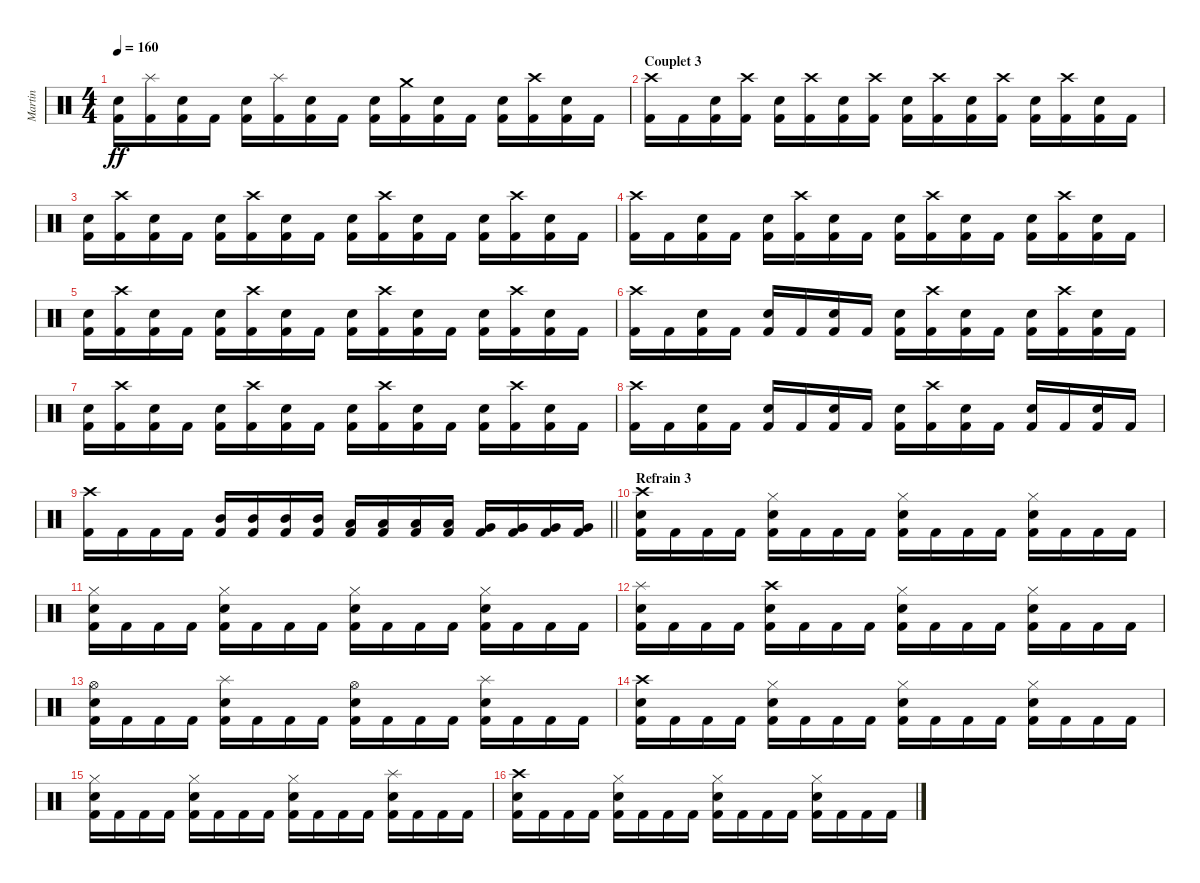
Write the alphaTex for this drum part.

\track ("Martin" "Martin") {instrument percussion}
\staff {score}
\articulation defaults
\ts (4 4)
\tempo 160
\clef neutral
\ks c
("Electric Snare (hit)" "Kick (hit) 2").16{dy ff} ("Splash (hit)" "Kick (hit) 2").16 ("Electric Snare (hit)" "Kick (hit) 2").16 "Kick (hit) 2".16 ("Electric Snare (hit)" "Kick (hit) 2").16 ("Splash (hit)" "Kick (hit) 2").16 ("Electric Snare (hit)" "Kick (hit) 2").16 "Kick (hit) 2".16 ("Electric Snare (hit)" "Kick (hit) 2").16 ("Crash medium (hit)" "Kick (hit) 2").16 ("Electric Snare (hit)" "Kick (hit) 2").16 "Kick (hit) 2".16 ("Electric Snare (hit)" "Kick (hit) 2").16 ("Crash high (hit)" "Kick (hit) 2").16 ("Electric Snare (hit)" "Kick (hit) 2").16 "Kick (hit) 2".16 |
\section ("" "Couplet 3")
("Crash high (hit)" "Kick (hit) 2").16 "Kick (hit) 2".16 ("Electric Snare (hit)" "Kick (hit) 2").16 ("Crash high (hit)" "Kick (hit) 2").16 ("Electric Snare (hit)" "Kick (hit) 2").16 ("Crash high (hit)" "Kick (hit) 2").16 ("Electric Snare (hit)" "Kick (hit) 2").16 ("Crash high (hit)" "Kick (hit) 2").16 ("Electric Snare (hit)" "Kick (hit) 2").16 ("Crash high (hit)" "Kick (hit) 2").16 ("Electric Snare (hit)" "Kick (hit) 2").16 ("Crash high (hit)" "Kick (hit) 2").16 ("Electric Snare (hit)" "Kick (hit) 2").16 ("Crash high (hit)" "Kick (hit) 2").16 ("Electric Snare (hit)" "Kick (hit) 2").16 "Kick (hit) 2".16 |
("Electric Snare (hit)" "Kick (hit) 2").16 ("Crash high (hit)" "Kick (hit) 2").16 ("Electric Snare (hit)" "Kick (hit) 2").16 "Kick (hit) 2".16 ("Electric Snare (hit)" "Kick (hit) 2").16 ("Crash high (hit)" "Kick (hit) 2").16 ("Electric Snare (hit)" "Kick (hit) 2").16 "Kick (hit) 2".16 ("Electric Snare (hit)" "Kick (hit) 2").16 ("Crash high (hit)" "Kick (hit) 2").16 ("Electric Snare (hit)" "Kick (hit) 2").16 "Kick (hit) 2".16 ("Electric Snare (hit)" "Kick (hit) 2").16 ("Crash high (hit)" "Kick (hit) 2").16 ("Electric Snare (hit)" "Kick (hit) 2").16 "Kick (hit) 2".16 |
("Crash high (hit)" "Kick (hit) 2").16 "Kick (hit) 2".16 ("Electric Snare (hit)" "Kick (hit) 2").16 "Kick (hit) 2".16 ("Electric Snare (hit)" "Kick (hit) 2").16 ("Crash high (hit)" "Kick (hit) 2").16 ("Electric Snare (hit)" "Kick (hit) 2").16 "Kick (hit) 2".16 ("Electric Snare (hit)" "Kick (hit) 2").16 ("Crash high (hit)" "Kick (hit) 2").16 ("Electric Snare (hit)" "Kick (hit) 2").16 "Kick (hit) 2".16 ("Electric Snare (hit)" "Kick (hit) 2").16 ("Crash high (hit)" "Kick (hit) 2").16 ("Electric Snare (hit)" "Kick (hit) 2").16 "Kick (hit) 2".16 |
("Electric Snare (hit)" "Kick (hit) 2").16 ("Crash high (hit)" "Kick (hit) 2").16 ("Electric Snare (hit)" "Kick (hit) 2").16 "Kick (hit) 2".16 ("Electric Snare (hit)" "Kick (hit) 2").16 ("Crash high (hit)" "Kick (hit) 2").16 ("Electric Snare (hit)" "Kick (hit) 2").16 "Kick (hit) 2".16 ("Electric Snare (hit)" "Kick (hit) 2").16 ("Crash high (hit)" "Kick (hit) 2").16 ("Electric Snare (hit)" "Kick (hit) 2").16 "Kick (hit) 2".16 ("Electric Snare (hit)" "Kick (hit) 2").16 ("Crash high (hit)" "Kick (hit) 2").16 ("Electric Snare (hit)" "Kick (hit) 2").16 "Kick (hit) 2".16 |
("Crash high (hit)" "Kick (hit) 2").16 "Kick (hit) 2".16 ("Electric Snare (hit)" "Kick (hit) 2").16 "Kick (hit) 2".16 ("Electric Snare (hit)" "Kick (hit) 2").16 "Kick (hit) 2".16 ("Electric Snare (hit)" "Kick (hit) 2").16 "Kick (hit) 2".16 ("Electric Snare (hit)" "Kick (hit) 2").16 ("Crash high (hit)" "Kick (hit) 2").16 ("Electric Snare (hit)" "Kick (hit) 2").16 "Kick (hit) 2".16 ("Electric Snare (hit)" "Kick (hit) 2").16 ("Crash high (hit)" "Kick (hit) 2").16 ("Electric Snare (hit)" "Kick (hit) 2").16 "Kick (hit) 2".16 |
("Electric Snare (hit)" "Kick (hit) 2").16 ("Crash high (hit)" "Kick (hit) 2").16 ("Electric Snare (hit)" "Kick (hit) 2").16 "Kick (hit) 2".16 ("Electric Snare (hit)" "Kick (hit) 2").16 ("Crash high (hit)" "Kick (hit) 2").16 ("Electric Snare (hit)" "Kick (hit) 2").16 "Kick (hit) 2".16 ("Electric Snare (hit)" "Kick (hit) 2").16 ("Crash high (hit)" "Kick (hit) 2").16 ("Electric Snare (hit)" "Kick (hit) 2").16 "Kick (hit) 2".16 ("Electric Snare (hit)" "Kick (hit) 2").16 ("Crash high (hit)" "Kick (hit) 2").16 ("Electric Snare (hit)" "Kick (hit) 2").16 "Kick (hit) 2".16 |
("Crash high (hit)" "Kick (hit) 2").16 "Kick (hit) 2".16 ("Electric Snare (hit)" "Kick (hit) 2").16 "Kick (hit) 2".16 ("Electric Snare (hit)" "Kick (hit) 2").16 "Kick (hit) 2".16 ("Electric Snare (hit)" "Kick (hit) 2").16 "Kick (hit) 2".16 ("Electric Snare (hit)" "Kick (hit) 2").16 ("Crash high (hit)" "Kick (hit) 2").16 ("Electric Snare (hit)" "Kick (hit) 2").16 "Kick (hit) 2".16 ("Electric Snare (hit)" "Kick (hit) 2").16 "Kick (hit) 2".16 ("Electric Snare (hit)" "Kick (hit) 2").16 "Kick (hit) 2".16 |
\barLineRight lightlight
("Crash high (hit)" "Kick (hit) 2").16 "Kick (hit) 2".16 "Kick (hit) 2".16 "Kick (hit) 2".16 ("Mid Tom (hit)" "Kick (hit) 2").16 ("Mid Tom (hit)" "Kick (hit) 2").16 ("Mid Tom (hit)" "Kick (hit) 2").16 ("Mid Tom (hit)" "Kick (hit) 2").16 ("Low Tom (hit)" "Kick (hit) 2").16 ("Low Tom (hit)" "Kick (hit) 2").16 ("Low Tom (hit)" "Kick (hit) 2").16 ("Low Tom (hit)" "Kick (hit) 2").16 ("Very Low Tom (hit)" "Kick (hit) 2").16 ("Very Low Tom (hit)" "Kick (hit) 2").16 ("Very Low Tom (hit)" "Kick (hit) 2").16 ("Very Low Tom (hit)" "Kick (hit) 2").16 |
\section ("" "Refrain 3")
("Crash high (hit)" "Electric Snare (hit)" "Kick (hit) 2").16 "Kick (hit) 2".16 "Kick (hit) 2".16 "Kick (hit) 2".16 ("Hi-Hat (closed)" "Electric Snare (hit)" "Kick (hit) 2").16 "Kick (hit) 2".16 "Kick (hit) 2".16 "Kick (hit) 2".16 ("Hi-Hat (closed)" "Electric Snare (hit)" "Kick (hit) 2").16 "Kick (hit) 2".16 "Kick (hit) 2".16 "Kick (hit) 2".16 ("Hi-Hat (closed)" "Electric Snare (hit)" "Kick (hit) 2").16 "Kick (hit) 2".16 "Kick (hit) 2".16 "Kick (hit) 2".16 |
("Hi-Hat (closed)" "Electric Snare (hit)" "Kick (hit) 2").16 "Kick (hit) 2".16 "Kick (hit) 2".16 "Kick (hit) 2".16 ("Hi-Hat (closed)" "Electric Snare (hit)" "Kick (hit) 2").16 "Kick (hit) 2".16 "Kick (hit) 2".16 "Kick (hit) 2".16 ("Hi-Hat (closed)" "Electric Snare (hit)" "Kick (hit) 2").16 "Kick (hit) 2".16 "Kick (hit) 2".16 "Kick (hit) 2".16 ("Hi-Hat (closed)" "Electric Snare (hit)" "Kick (hit) 2").16 "Kick (hit) 2".16 "Kick (hit) 2".16 "Kick (hit) 2".16 |
("Splash (hit)" "Electric Snare (hit)" "Kick (hit) 2").16 "Kick (hit) 2".16 "Kick (hit) 2".16 "Kick (hit) 2".16 ("Crash high (hit)" "Electric Snare (hit)" "Kick (hit) 2").16 "Kick (hit) 2".16 "Kick (hit) 2".16 "Kick (hit) 2".16 ("Hi-Hat (closed)" "Electric Snare (hit)" "Kick (hit) 2").16 "Kick (hit) 2".16 "Kick (hit) 2".16 "Kick (hit) 2".16 ("Hi-Hat (closed)" "Electric Snare (hit)" "Kick (hit) 2").16 "Kick (hit) 2".16 "Kick (hit) 2".16 "Kick (hit) 2".16 |
("Hi-Hat (open)" "Electric Snare (hit)" "Kick (hit) 2").16 "Kick (hit) 2".16 "Kick (hit) 2".16 "Kick (hit) 2".16 ("Splash (hit)" "Electric Snare (hit)" "Kick (hit) 2").16 "Kick (hit) 2".16 "Kick (hit) 2".16 "Kick (hit) 2".16 ("Hi-Hat (open)" "Electric Snare (hit)" "Kick (hit) 2").16 "Kick (hit) 2".16 "Kick (hit) 2".16 "Kick (hit) 2".16 ("Splash (hit)" "Electric Snare (hit)" "Kick (hit) 2").16 "Kick (hit) 2".16 "Kick (hit) 2".16 "Kick (hit) 2".16 |
("Crash high (hit)" "Electric Snare (hit)" "Kick (hit) 2").16 "Kick (hit) 2".16 "Kick (hit) 2".16 "Kick (hit) 2".16 ("Hi-Hat (closed)" "Electric Snare (hit)" "Kick (hit) 2").16 "Kick (hit) 2".16 "Kick (hit) 2".16 "Kick (hit) 2".16 ("Hi-Hat (closed)" "Electric Snare (hit)" "Kick (hit) 2").16 "Kick (hit) 2".16 "Kick (hit) 2".16 "Kick (hit) 2".16 ("Hi-Hat (closed)" "Electric Snare (hit)" "Kick (hit) 2").16 "Kick (hit) 2".16 "Kick (hit) 2".16 "Kick (hit) 2".16 |
("Hi-Hat (closed)" "Electric Snare (hit)" "Kick (hit) 2").16 "Kick (hit) 2".16 "Kick (hit) 2".16 "Kick (hit) 2".16 ("Hi-Hat (closed)" "Electric Snare (hit)" "Kick (hit) 2").16 "Kick (hit) 2".16 "Kick (hit) 2".16 "Kick (hit) 2".16 ("Hi-Hat (closed)" "Electric Snare (hit)" "Kick (hit) 2").16 "Kick (hit) 2".16 "Kick (hit) 2".16 "Kick (hit) 2".16 ("Splash (hit)" "Electric Snare (hit)" "Kick (hit) 2").16 "Kick (hit) 2".16 "Kick (hit) 2".16 "Kick (hit) 2".16 |
("Crash high (hit)" "Electric Snare (hit)" "Kick (hit) 2").16 "Kick (hit) 2".16 "Kick (hit) 2".16 "Kick (hit) 2".16 ("Hi-Hat (closed)" "Electric Snare (hit)" "Kick (hit) 2").16 "Kick (hit) 2".16 "Kick (hit) 2".16 "Kick (hit) 2".16 ("Hi-Hat (closed)" "Electric Snare (hit)" "Kick (hit) 2").16 "Kick (hit) 2".16 "Kick (hit) 2".16 "Kick (hit) 2".16 ("Hi-Hat (closed)" "Electric Snare (hit)" "Kick (hit) 2").16 "Kick (hit) 2".16 "Kick (hit) 2".16 "Kick (hit) 2".16
